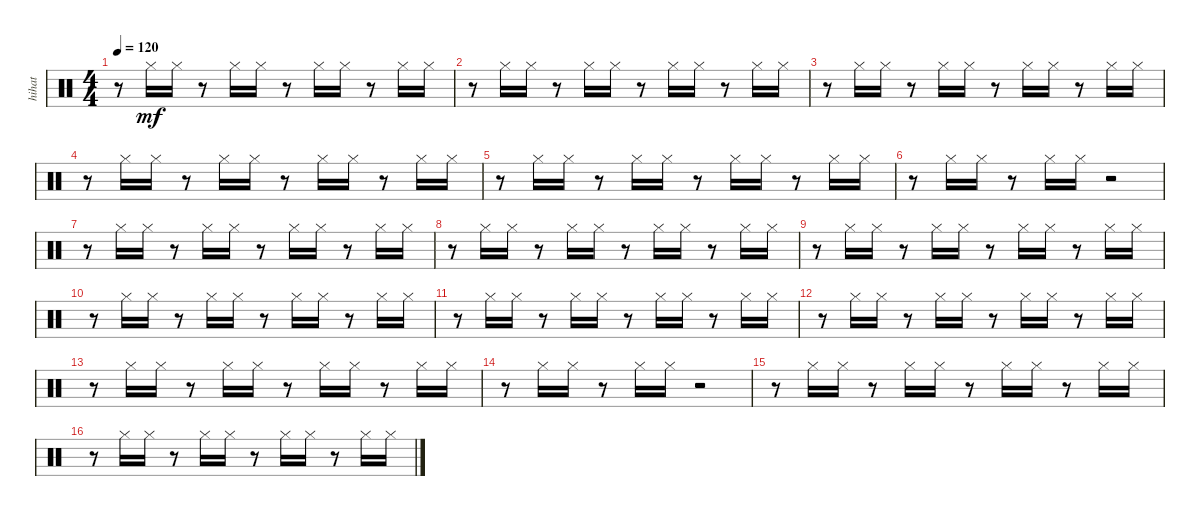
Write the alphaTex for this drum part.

\track ("hihat" "hihat") {instrument percussion}
\staff {score}
\articulation defaults
\ts (4 4)
\tempo 120
\clef neutral
\ks c
r.8{dy mf} "Hi-Hat (closed)".16 "Hi-Hat (closed)".16 r.8 "Hi-Hat (closed)".16 "Hi-Hat (closed)".16 r.8 "Hi-Hat (closed)".16 "Hi-Hat (closed)".16 r.8 "Hi-Hat (closed)".16 "Hi-Hat (closed)".16 |
r.8 "Hi-Hat (closed)".16 "Hi-Hat (closed)".16 r.8 "Hi-Hat (closed)".16 "Hi-Hat (closed)".16 r.8 "Hi-Hat (closed)".16 "Hi-Hat (closed)".16 r.8 "Hi-Hat (closed)".16 "Hi-Hat (closed)".16 |
r.8 "Hi-Hat (closed)".16 "Hi-Hat (closed)".16 r.8 "Hi-Hat (closed)".16 "Hi-Hat (closed)".16 r.8 "Hi-Hat (closed)".16 "Hi-Hat (closed)".16 r.8 "Hi-Hat (closed)".16 "Hi-Hat (closed)".16 |
r.8 "Hi-Hat (closed)".16 "Hi-Hat (closed)".16 r.8 "Hi-Hat (closed)".16 "Hi-Hat (closed)".16 r.8 "Hi-Hat (closed)".16 "Hi-Hat (closed)".16 r.8 "Hi-Hat (closed)".16 "Hi-Hat (closed)".16 |
r.8 "Hi-Hat (closed)".16 "Hi-Hat (closed)".16 r.8 "Hi-Hat (closed)".16 "Hi-Hat (closed)".16 r.8 "Hi-Hat (closed)".16 "Hi-Hat (closed)".16 r.8 "Hi-Hat (closed)".16 "Hi-Hat (closed)".16 |
r.8 "Hi-Hat (closed)".16 "Hi-Hat (closed)".16 r.8 "Hi-Hat (closed)".16 "Hi-Hat (closed)".16 r.2 |
r.8 "Hi-Hat (closed)".16 "Hi-Hat (closed)".16 r.8 "Hi-Hat (closed)".16 "Hi-Hat (closed)".16 r.8 "Hi-Hat (closed)".16 "Hi-Hat (closed)".16 r.8 "Hi-Hat (closed)".16 "Hi-Hat (closed)".16 |
r.8 "Hi-Hat (closed)".16 "Hi-Hat (closed)".16 r.8 "Hi-Hat (closed)".16 "Hi-Hat (closed)".16 r.8 "Hi-Hat (closed)".16 "Hi-Hat (closed)".16 r.8 "Hi-Hat (closed)".16 "Hi-Hat (closed)".16 |
r.8 "Hi-Hat (closed)".16 "Hi-Hat (closed)".16 r.8 "Hi-Hat (closed)".16 "Hi-Hat (closed)".16 r.8 "Hi-Hat (closed)".16 "Hi-Hat (closed)".16 r.8 "Hi-Hat (closed)".16 "Hi-Hat (closed)".16 |
r.8 "Hi-Hat (closed)".16 "Hi-Hat (closed)".16 r.8 "Hi-Hat (closed)".16 "Hi-Hat (closed)".16 r.8 "Hi-Hat (closed)".16 "Hi-Hat (closed)".16 r.8 "Hi-Hat (closed)".16 "Hi-Hat (closed)".16 |
r.8 "Hi-Hat (closed)".16 "Hi-Hat (closed)".16 r.8 "Hi-Hat (closed)".16 "Hi-Hat (closed)".16 r.8 "Hi-Hat (closed)".16 "Hi-Hat (closed)".16 r.8 "Hi-Hat (closed)".16 "Hi-Hat (closed)".16 |
r.8 "Hi-Hat (closed)".16 "Hi-Hat (closed)".16 r.8 "Hi-Hat (closed)".16 "Hi-Hat (closed)".16 r.8 "Hi-Hat (closed)".16 "Hi-Hat (closed)".16 r.8 "Hi-Hat (closed)".16 "Hi-Hat (closed)".16 |
r.8 "Hi-Hat (closed)".16 "Hi-Hat (closed)".16 r.8 "Hi-Hat (closed)".16 "Hi-Hat (closed)".16 r.8 "Hi-Hat (closed)".16 "Hi-Hat (closed)".16 r.8 "Hi-Hat (closed)".16 "Hi-Hat (closed)".16 |
r.8 "Hi-Hat (closed)".16 "Hi-Hat (closed)".16 r.8 "Hi-Hat (closed)".16 "Hi-Hat (closed)".16 r.2 |
r.8 "Hi-Hat (closed)".16 "Hi-Hat (closed)".16 r.8 "Hi-Hat (closed)".16 "Hi-Hat (closed)".16 r.8 "Hi-Hat (closed)".16 "Hi-Hat (closed)".16 r.8 "Hi-Hat (closed)".16 "Hi-Hat (closed)".16 |
r.8 "Hi-Hat (closed)".16 "Hi-Hat (closed)".16 r.8 "Hi-Hat (closed)".16 "Hi-Hat (closed)".16 r.8 "Hi-Hat (closed)".16 "Hi-Hat (closed)".16 r.8 "Hi-Hat (closed)".16 "Hi-Hat (closed)".16
